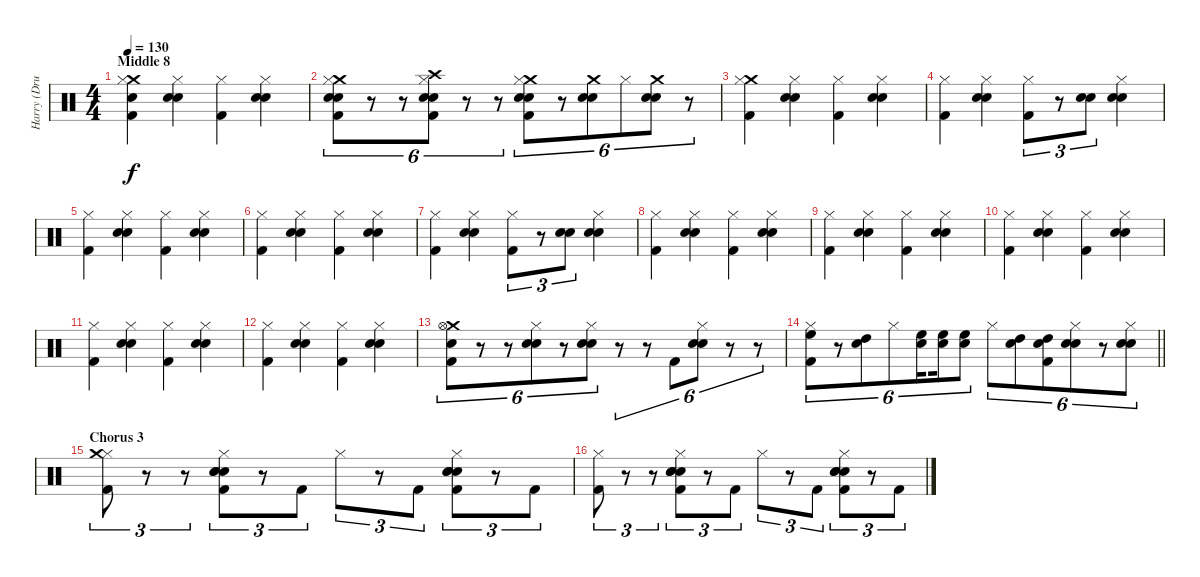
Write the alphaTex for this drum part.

\track ("Harry (Drums)" "Harry (Dru") {instrument percussion}
\staff {score}
\articulation defaults
\ts (4 4)
\section ("" "Middle 8")
\tempo 130
\clef neutral
\ks c
("Crash medium (hit)" "Hi-Hat (closed)" "Kick (hit) 2" "Electric Snare (hit)").4{dy f volume 11} ("Hi-Hat (closed)" "Snare (hit) 2" "Electric Snare (hit)").4 ("Hi-Hat (closed)" "Kick (hit) 2").4 ("Hi-Hat (closed)" "Snare (hit) 2" "Electric Snare (hit)").4 |
("Crash medium (hit)" "Electric Snare (hit)" "Snare (hit) 2" "Kick (hit) 2" "Hi-Hat (closed)").8{tu (6 4)} r.8{tu (6 4)} r.8{tu (6 4)} ("Crash high (hit)" "Electric Snare (hit)" "Snare (hit) 2" "Kick (hit) 2" "Hi-Hat (closed)").8{tu (6 4)} r.8{tu (6 4)} r.8{tu (6 4)} ("Crash medium (hit)" "Electric Snare (hit)" "Snare (hit) 2" "Kick (hit) 2" "Hi-Hat (closed)").8{tu (6 4)} r.8{tu (6 4)} ("Crash medium (hit)" "Electric Snare (hit)" "Snare (hit) 2").8{tu (6 4)} "Hi-Hat (closed)".8{tu (6 4)} ("Crash medium (hit)" "Electric Snare (hit)" "Snare (hit) 2").8{tu (6 4)} r.8{tu (6 4)} |
("Crash medium (hit)" "Hi-Hat (closed)" "Kick (hit) 2").4 ("Hi-Hat (closed)" "Snare (hit) 2" "Electric Snare (hit)").4 ("Hi-Hat (closed)" "Kick (hit) 2").4 ("Hi-Hat (closed)" "Snare (hit) 2" "Electric Snare (hit)").4 |
("Hi-Hat (closed)" "Kick (hit) 2").4 ("Hi-Hat (closed)" "Snare (hit) 2" "Electric Snare (hit)").4 ("Hi-Hat (closed)" "Kick (hit) 2").8{tu (3 2)} r.8{tu (3 2)} ("Snare (hit) 2" "Electric Snare (hit)").8{tu (3 2)} ("Hi-Hat (closed)" "Snare (hit) 2" "Electric Snare (hit)").4 |
("Hi-Hat (closed)" "Kick (hit) 2").4 ("Hi-Hat (closed)" "Snare (hit) 2" "Electric Snare (hit)").4 ("Hi-Hat (closed)" "Kick (hit) 2").4 ("Hi-Hat (closed)" "Snare (hit) 2" "Electric Snare (hit)").4 |
("Hi-Hat (closed)" "Kick (hit) 2").4 ("Hi-Hat (closed)" "Snare (hit) 2" "Electric Snare (hit)").4 ("Hi-Hat (closed)" "Kick (hit) 2").4 ("Hi-Hat (closed)" "Snare (hit) 2" "Electric Snare (hit)").4 |
("Hi-Hat (closed)" "Kick (hit) 2").4 ("Hi-Hat (closed)" "Snare (hit) 2" "Electric Snare (hit)").4 ("Hi-Hat (closed)" "Kick (hit) 2").8{tu (3 2)} r.8{tu (3 2)} ("Snare (hit) 2" "Electric Snare (hit)").8{tu (3 2)} ("Hi-Hat (closed)" "Snare (hit) 2" "Electric Snare (hit)").4 |
("Hi-Hat (closed)" "Kick (hit) 2").4 ("Hi-Hat (closed)" "Snare (hit) 2" "Electric Snare (hit)").4 ("Hi-Hat (closed)" "Kick (hit) 2").4 ("Hi-Hat (closed)" "Snare (hit) 2" "Electric Snare (hit)").4 |
("Hi-Hat (closed)" "Kick (hit) 2").4 ("Hi-Hat (closed)" "Snare (hit) 2" "Electric Snare (hit)").4 ("Hi-Hat (closed)" "Kick (hit) 2").4 ("Hi-Hat (closed)" "Snare (hit) 2" "Electric Snare (hit)").4 |
("Hi-Hat (closed)" "Kick (hit) 2").4 ("Hi-Hat (closed)" "Snare (hit) 2" "Electric Snare (hit)").4 ("Hi-Hat (closed)" "Kick (hit) 2").4 ("Hi-Hat (closed)" "Snare (hit) 2" "Electric Snare (hit)").4 |
("Hi-Hat (closed)" "Kick (hit) 2").4 ("Hi-Hat (closed)" "Snare (hit) 2" "Electric Snare (hit)").4 ("Hi-Hat (closed)" "Kick (hit) 2").4 ("Hi-Hat (closed)" "Snare (hit) 2" "Electric Snare (hit)").4 |
("Hi-Hat (closed)" "Kick (hit) 2").4 ("Hi-Hat (closed)" "Snare (hit) 2" "Electric Snare (hit)").4 ("Hi-Hat (closed)" "Kick (hit) 2").4 ("Hi-Hat (closed)" "Snare (hit) 2" "Electric Snare (hit)").4 |
("Crash medium (hit)" "Kick (hit) 2" "Electric Snare (hit)" "Hi-Hat (open)").8{tu (6 4)} r.8{tu (6 4)} r.8{tu (6 4)} ("Snare (hit) 2" "Electric Snare (hit)" "Hi-Hat (closed)").8{tu (6 4)} r.8{tu (6 4)} ("Snare (hit) 2" "Electric Snare (hit)" "Hi-Hat (closed)").8{tu (6 4)} r.8{tu (6 4)} r.8{tu (6 4)} "Kick (hit) 2".8{tu (6 4)} ("Snare (hit) 2" "Electric Snare (hit)" "Hi-Hat (closed)").8{tu (6 4)} r.8{tu (6 4)} r.8{tu (6 4)} |
\barLineRight lightlight
("High Floor Tom (hit)" "Kick (hit) 2" "Hi-Hat (closed)").8{tu (6 4)} r.8{tu (6 4)} ("High Tom (hit)" "Electric Snare (hit)").8{tu (6 4)} "Hi-Hat (closed)".8{tu (6 4)} ("High Floor Tom (hit)" "Electric Snare (hit)").16{tu (6 4) beam splitsecondary} ("High Floor Tom (hit)" "Electric Snare (hit)").16{tu (6 4)} ("High Floor Tom (hit)" "Electric Snare (hit)").8{tu (6 4)} "Hi-Hat (closed)".8{tu (6 4)} ("High Tom (hit)" "Electric Snare (hit)").8{tu (6 4)} ("High Tom (hit)" "Kick (hit) 2" "Electric Snare (hit)").8{tu (6 4)} ("Snare (hit) 2" "Electric Snare (hit)" "Hi-Hat (closed)").8{tu (6 4)} r.8{tu (6 4)} ("Snare (hit) 2" "Electric Snare (hit)" "Hi-Hat (closed)").8{tu (6 4)} |
\section ("" "Chorus 3")
("Kick (hit) 2" "Hi-Hat (closed)" "Crash medium (hit)").8{tu (3 2)} r.8{tu (3 2)} r.8{tu (3 2)} ("Kick (hit) 2" "Hi-Hat (closed)" "Hand Clap (hit)" "Hand Clap (hit)" "Hand Clap (hit)").8{tu (3 2)} r.8{tu (3 2)} "Kick (hit) 2".8{tu (3 2)} "Hi-Hat (closed)".8{tu (3 2)} r.8{tu (3 2)} "Kick (hit) 2".8{tu (3 2)} ("Kick (hit) 2" "Hi-Hat (closed)" "Hand Clap (hit)" "Hand Clap (hit)" "Hand Clap (hit)").8{tu (3 2)} r.8{tu (3 2)} "Kick (hit) 2".8{tu (3 2)} |
("Kick (hit) 2" "Hi-Hat (closed)").8{tu (3 2)} r.8{tu (3 2)} r.8{tu (3 2)} ("Kick (hit) 2" "Hi-Hat (closed)" "Hand Clap (hit)" "Hand Clap (hit)" "Hand Clap (hit)").8{tu (3 2)} r.8{tu (3 2)} "Kick (hit) 2".8{tu (3 2)} "Hi-Hat (closed)".8{tu (3 2)} r.8{tu (3 2)} "Kick (hit) 2".8{tu (3 2)} ("Kick (hit) 2" "Hi-Hat (closed)" "Hand Clap (hit)" "Hand Clap (hit)" "Hand Clap (hit)").8{tu (3 2)} r.8{tu (3 2)} "Kick (hit) 2".8{tu (3 2)}
